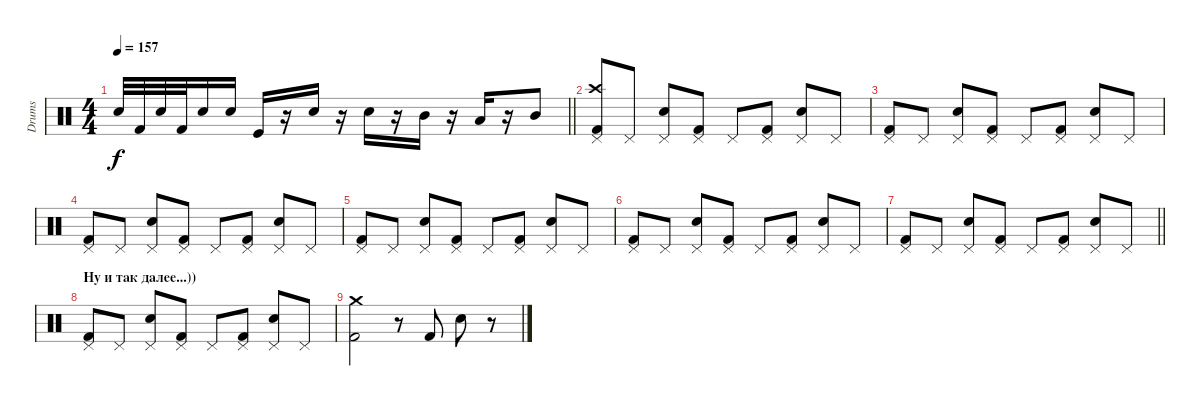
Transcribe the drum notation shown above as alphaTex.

\track ("Drums" "Drums") {instrument percussion}
\staff {score}
\articulation defaults
\ts (4 4)
\tempo 157
\clef neutral
\barLineRight lightlight
\ks c "Snare (hit) 2".32{dy f} "Kick (hit) 2".32 "Snare (hit) 2".32 "Kick (hit) 2".32 "Snare (hit) 2".16 "Snare (hit) 2".16 "Kick (hit)".16
r.16 "Snare (hit) 2".16 r.16 "Electric Snare (hit)".16 r.16 "Mid Tom (hit)".16 r.16 "Low Tom (hit)".16 r.16 "Mid Tom (hit)".8 |
("Crash high (hit)" "Pedal Hi-Hat (hit)" "Kick (hit) 2").8 "Pedal Hi-Hat (hit)".8 ("Pedal Hi-Hat (hit)" "Snare (hit) 2").8 ("Pedal Hi-Hat (hit)" "Kick (hit) 2").8 "Pedal Hi-Hat (hit)".8 ("Pedal Hi-Hat (hit)" "Kick (hit) 2").8 ("Pedal Hi-Hat (hit)" "Snare (hit) 2").8 "Pedal Hi-Hat (hit)".8 |
("Pedal Hi-Hat (hit)" "Kick (hit) 2").8 "Pedal Hi-Hat (hit)".8 ("Pedal Hi-Hat (hit)" "Snare (hit) 2").8 ("Pedal Hi-Hat (hit)" "Kick (hit) 2").8 "Pedal Hi-Hat (hit)".8 ("Pedal Hi-Hat (hit)" "Kick (hit) 2").8 ("Pedal Hi-Hat (hit)" "Snare (hit) 2").8 "Pedal Hi-Hat (hit)".8 |
("Pedal Hi-Hat (hit)" "Kick (hit) 2").8 "Pedal Hi-Hat (hit)".8 ("Pedal Hi-Hat (hit)" "Snare (hit) 2").8 ("Pedal Hi-Hat (hit)" "Kick (hit) 2").8 "Pedal Hi-Hat (hit)".8 ("Pedal Hi-Hat (hit)" "Kick (hit) 2").8 ("Pedal Hi-Hat (hit)" "Snare (hit) 2").8 "Pedal Hi-Hat (hit)".8 |
("Pedal Hi-Hat (hit)" "Kick (hit) 2").8 "Pedal Hi-Hat (hit)".8 ("Pedal Hi-Hat (hit)" "Snare (hit) 2").8 ("Pedal Hi-Hat (hit)" "Kick (hit) 2").8 "Pedal Hi-Hat (hit)".8 ("Pedal Hi-Hat (hit)" "Kick (hit) 2").8 ("Pedal Hi-Hat (hit)" "Snare (hit) 2").8 "Pedal Hi-Hat (hit)".8 |
("Pedal Hi-Hat (hit)" "Kick (hit) 2").8 "Pedal Hi-Hat (hit)".8 ("Pedal Hi-Hat (hit)" "Snare (hit) 2").8 ("Pedal Hi-Hat (hit)" "Kick (hit) 2").8 "Pedal Hi-Hat (hit)".8 ("Pedal Hi-Hat (hit)" "Kick (hit) 2").8 ("Pedal Hi-Hat (hit)" "Snare (hit) 2").8 "Pedal Hi-Hat (hit)".8 |
\barLineRight lightlight
("Pedal Hi-Hat (hit)" "Kick (hit) 2").8 "Pedal Hi-Hat (hit)".8 ("Pedal Hi-Hat (hit)" "Snare (hit) 2").8 ("Pedal Hi-Hat (hit)" "Kick (hit) 2").8 "Pedal Hi-Hat (hit)".8 ("Pedal Hi-Hat (hit)" "Kick (hit) 2").8 ("Pedal Hi-Hat (hit)" "Snare (hit) 2").8 "Pedal Hi-Hat (hit)".8 |
\section ("" "Ну и так далее...))")
("Pedal Hi-Hat (hit)" "Kick (hit) 2").8 "Pedal Hi-Hat (hit)".8 ("Pedal Hi-Hat (hit)" "Snare (hit) 2").8 ("Pedal Hi-Hat (hit)" "Kick (hit) 2").8 "Pedal Hi-Hat (hit)".8 ("Pedal Hi-Hat (hit)" "Kick (hit) 2").8 ("Pedal Hi-Hat (hit)" "Snare (hit) 2").8 "Pedal Hi-Hat (hit)".8 |
("Crash medium (hit)" "Kick (hit) 2").2 r.8 "Kick (hit) 2".8 "Snare (hit) 2".8 r.8
